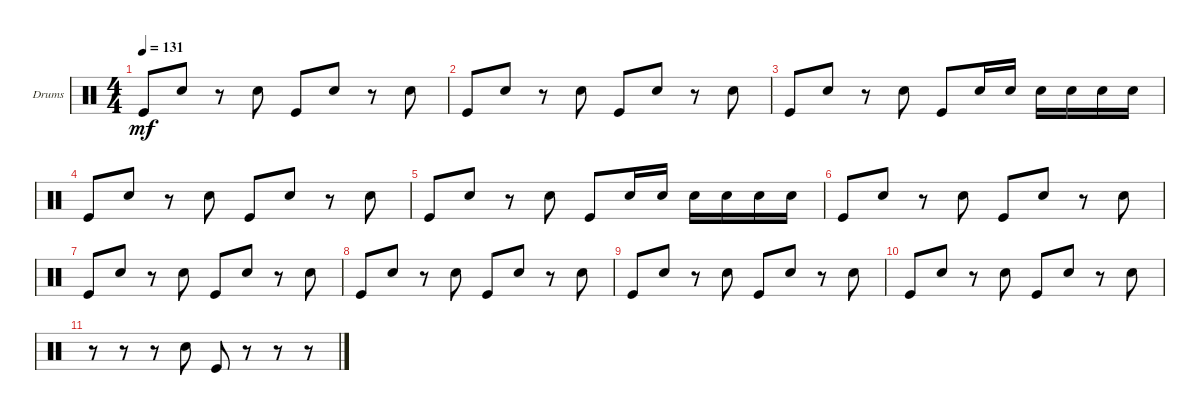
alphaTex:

\bracketExtendMode groupsimilarinstruments
\firstSystemTrackNameOrientation horizontal
\otherSystemsTrackNameOrientation horizontal
\track ("Drumkit" "Drums") {instrument percussion}
\staff {score}
\articulation defaults
\ts (4 4)
\tempo 131
\clef neutral
\scale
0.333333
\ks c "Kick (hit)".8{dy mf} "Snare (hit) 2".8
r.8 "Snare (hit) 2".8 "Kick (hit)".8 "Snare (hit) 2".8 r.8 "Snare (hit) 2".8 |
\scale
0.333333 "Kick (hit)".8 "Snare (hit) 2".8 r.8 "Snare (hit) 2".8 "Kick (hit)".8 "Snare (hit) 2".8 r.8 "Snare (hit) 2".8 |
\scale
0.333333 "Kick (hit)".8 "Snare (hit) 2".8 r.8 "Snare (hit) 2".8 "Kick (hit)".8 "Snare (hit) 2".16 "Snare (hit) 2".16 "Snare (hit) 2".16 "Snare (hit) 2".16 "Snare (hit) 2".16 "Snare (hit) 2".16 |
\scale
0.333333 "Kick (hit)".8 "Snare (hit) 2".8 r.8 "Snare (hit) 2".8 "Kick (hit)".8 "Snare (hit) 2".8 r.8 "Snare (hit) 2".8 |
\scale
0.333333 "Kick (hit)".8 "Snare (hit) 2".8 r.8 "Snare (hit) 2".8 "Kick (hit)".8 "Snare (hit) 2".16 "Snare (hit) 2".16 "Snare (hit) 2".16 "Snare (hit) 2".16 "Snare (hit) 2".16 "Snare (hit) 2".16 |
\scale
0.333333 "Kick (hit)".8 "Snare (hit) 2".8 r.8 "Snare (hit) 2".8 "Kick (hit)".8 "Snare (hit) 2".8 r.8 "Snare (hit) 2".8 |
\scale
0.333333 "Kick (hit)".8 "Snare (hit) 2".8 r.8 "Snare (hit) 2".8 "Kick (hit)".8 "Snare (hit) 2".8 r.8 "Snare (hit) 2".8 |
\scale
0.333333 "Kick (hit)".8 "Snare (hit) 2".8 r.8 "Snare (hit) 2".8 "Kick (hit)".8 "Snare (hit) 2".8 r.8 "Snare (hit) 2".8 |
\scale
0.333333 "Kick (hit)".8 "Snare (hit) 2".8 r.8 "Snare (hit) 2".8 "Kick (hit)".8 "Snare (hit) 2".8 r.8 "Snare (hit) 2".8 |
"Kick (hit)".8 "Snare (hit) 2".8 r.8 "Snare (hit) 2".8 "Kick (hit)".8 "Snare (hit) 2".8 r.8 "Snare (hit) 2".8 |
r.8 r.8 r.8 "Snare (hit) 2".8 "Kick (hit)".8 r.8 r.8 r.8
